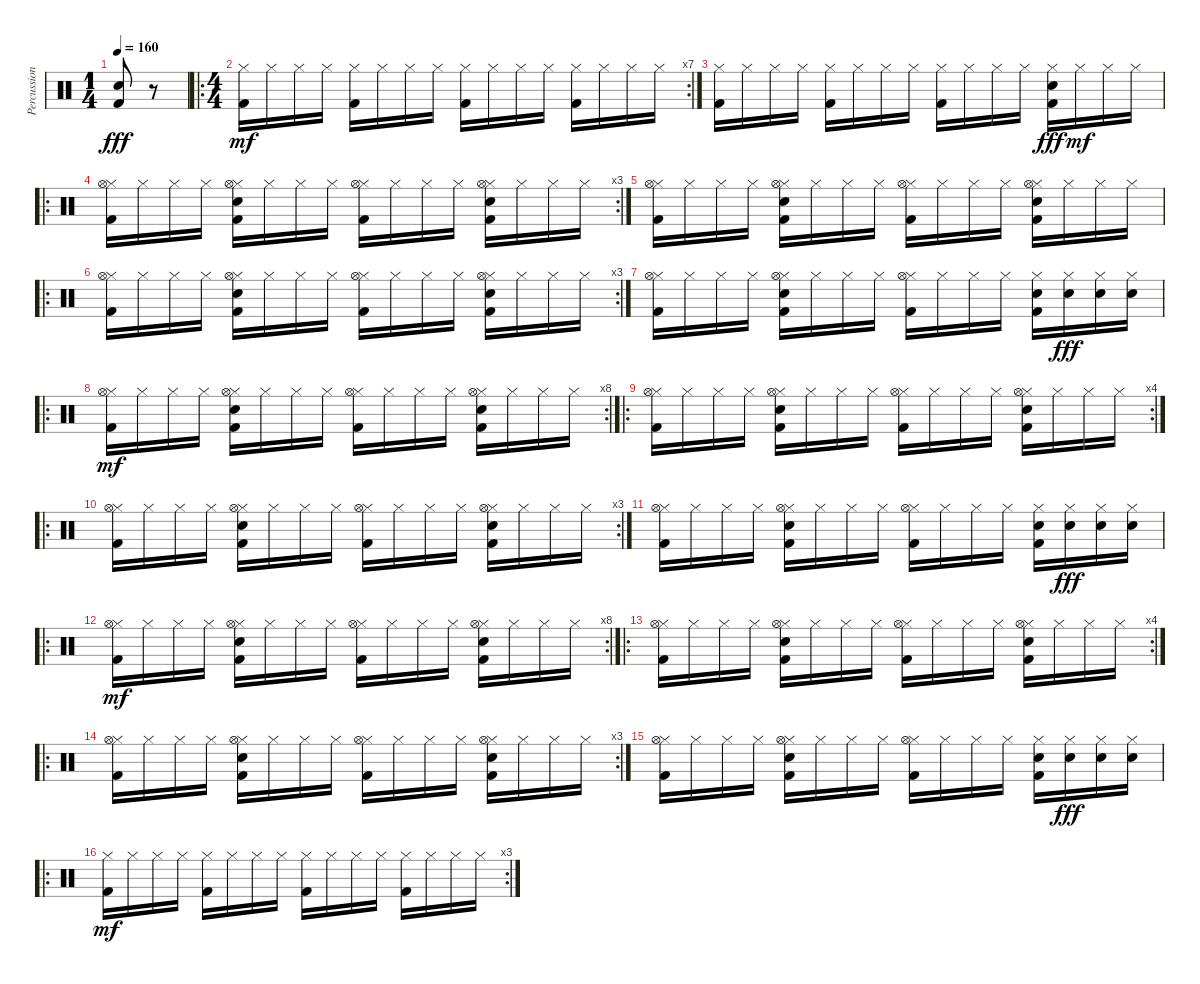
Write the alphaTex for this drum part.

\track ("Percussion" "Percussion") {instrument percussion}
\staff {score}
\articulation defaults
\ts (1 4)
\tempo 160
\clef neutral
\ks c
("Electric Snare (hit)" "Kick (hit) 2").8{dy fff} r.8 |
\ro
\rc 7
\ts (4 4)
("Hi-Hat (closed)" "Kick (hit) 2").16{dy mf volume 13} "Hi-Hat (closed)".16 "Hi-Hat (closed)".16 "Hi-Hat (closed)".16 ("Hi-Hat (closed)" "Kick (hit) 2").16 "Hi-Hat (closed)".16 "Hi-Hat (closed)".16 "Hi-Hat (closed)".16 ("Hi-Hat (closed)" "Kick (hit) 2").16 "Hi-Hat (closed)".16 "Hi-Hat (closed)".16 "Hi-Hat (closed)".16 ("Hi-Hat (closed)" "Kick (hit) 2").16 "Hi-Hat (closed)".16 "Hi-Hat (closed)".16 "Hi-Hat (closed)".16 |
("Hi-Hat (closed)" "Kick (hit) 2").16 "Hi-Hat (closed)".16 "Hi-Hat (closed)".16 "Hi-Hat (closed)".16 ("Hi-Hat (closed)" "Kick (hit) 2").16 "Hi-Hat (closed)".16 "Hi-Hat (closed)".16 "Hi-Hat (closed)".16 ("Hi-Hat (closed)" "Kick (hit) 2").16 "Hi-Hat (closed)".16 "Hi-Hat (closed)".16 "Hi-Hat (closed)".16 ("Hi-Hat (closed)" "Electric Snare (hit)" "Kick (hit) 2").16{dy fff volume 16} "Hi-Hat (closed)".16{dy mf} "Hi-Hat (closed)".16 "Hi-Hat (closed)".16 |
\ro
\rc 3
("Hi-Hat (closed)" "Hi-Hat (open)" "Kick (hit) 2").16 "Hi-Hat (closed)".16 "Hi-Hat (closed)".16 "Hi-Hat (closed)".16 ("Hi-Hat (closed)" "Hi-Hat (open)" "Electric Snare (hit)" "Kick (hit) 2").16 "Hi-Hat (closed)".16 "Hi-Hat (closed)".16 "Hi-Hat (closed)".16 ("Hi-Hat (closed)" "Hi-Hat (open)" "Kick (hit) 2").16 "Hi-Hat (closed)".16 "Hi-Hat (closed)".16 "Hi-Hat (closed)".16 ("Hi-Hat (closed)" "Hi-Hat (open)" "Electric Snare (hit)" "Kick (hit) 2").16 "Hi-Hat (closed)".16 "Hi-Hat (closed)".16 "Hi-Hat (closed)".16 |
("Hi-Hat (closed)" "Hi-Hat (open)" "Kick (hit) 2").16 "Hi-Hat (closed)".16 "Hi-Hat (closed)".16 "Hi-Hat (closed)".16 ("Hi-Hat (closed)" "Hi-Hat (open)" "Electric Snare (hit)" "Kick (hit) 2").16 "Hi-Hat (closed)".16 "Hi-Hat (closed)".16 "Hi-Hat (closed)".16 ("Hi-Hat (closed)" "Hi-Hat (open)" "Kick (hit) 2").16 "Hi-Hat (closed)".16 "Hi-Hat (closed)".16 "Hi-Hat (closed)".16 ("Hi-Hat (closed)" "Hi-Hat (open)" "Electric Snare (hit)" "Kick (hit) 2").16 "Hi-Hat (closed)".16 "Hi-Hat (closed)".16 "Hi-Hat (closed)".16 |
\ro
\rc 3
("Hi-Hat (closed)" "Hi-Hat (open)" "Kick (hit) 2").16 "Hi-Hat (closed)".16 "Hi-Hat (closed)".16 "Hi-Hat (closed)".16 ("Hi-Hat (closed)" "Hi-Hat (open)" "Electric Snare (hit)" "Kick (hit) 2").16 "Hi-Hat (closed)".16 "Hi-Hat (closed)".16 "Hi-Hat (closed)".16 ("Hi-Hat (closed)" "Hi-Hat (open)" "Kick (hit) 2").16 "Hi-Hat (closed)".16 "Hi-Hat (closed)".16 "Hi-Hat (closed)".16 ("Hi-Hat (closed)" "Hi-Hat (open)" "Electric Snare (hit)" "Kick (hit) 2").16 "Hi-Hat (closed)".16 "Hi-Hat (closed)".16 "Hi-Hat (closed)".16 |
("Hi-Hat (closed)" "Hi-Hat (open)" "Kick (hit) 2").16 "Hi-Hat (closed)".16 "Hi-Hat (closed)".16 "Hi-Hat (closed)".16 ("Hi-Hat (closed)" "Hi-Hat (open)" "Electric Snare (hit)" "Kick (hit) 2").16 "Hi-Hat (closed)".16 "Hi-Hat (closed)".16 "Hi-Hat (closed)".16 ("Hi-Hat (closed)" "Hi-Hat (open)" "Kick (hit) 2").16 "Hi-Hat (closed)".16 "Hi-Hat (closed)".16 "Hi-Hat (closed)".16 ("Hi-Hat (closed)" "Electric Snare (hit)" "Kick (hit) 2").16 ("Hi-Hat (closed)" "Electric Snare (hit)").16{dy fff} ("Hi-Hat (closed)" "Electric Snare (hit)").16 ("Hi-Hat (closed)" "Electric Snare (hit)").16 |
\ro
\rc 8
("Hi-Hat (closed)" "Hi-Hat (open)" "Kick (hit) 2").16{dy mf} "Hi-Hat (closed)".16 "Hi-Hat (closed)".16 "Hi-Hat (closed)".16 ("Hi-Hat (closed)" "Hi-Hat (open)" "Electric Snare (hit)" "Kick (hit) 2").16 "Hi-Hat (closed)".16 "Hi-Hat (closed)".16 "Hi-Hat (closed)".16 ("Hi-Hat (closed)" "Hi-Hat (open)" "Kick (hit) 2").16 "Hi-Hat (closed)".16 "Hi-Hat (closed)".16 "Hi-Hat (closed)".16 ("Hi-Hat (closed)" "Hi-Hat (open)" "Electric Snare (hit)" "Kick (hit) 2").16 "Hi-Hat (closed)".16 "Hi-Hat (closed)".16 "Hi-Hat (closed)".16 |
\ro
\rc 4
("Hi-Hat (closed)" "Hi-Hat (open)" "Kick (hit) 2").16 "Hi-Hat (closed)".16 "Hi-Hat (closed)".16 "Hi-Hat (closed)".16 ("Hi-Hat (closed)" "Hi-Hat (open)" "Electric Snare (hit)" "Kick (hit) 2").16 "Hi-Hat (closed)".16 "Hi-Hat (closed)".16 "Hi-Hat (closed)".16 ("Hi-Hat (closed)" "Hi-Hat (open)" "Kick (hit) 2").16 "Hi-Hat (closed)".16 "Hi-Hat (closed)".16 "Hi-Hat (closed)".16 ("Hi-Hat (closed)" "Hi-Hat (open)" "Electric Snare (hit)" "Kick (hit) 2").16 "Hi-Hat (closed)".16 "Hi-Hat (closed)".16 "Hi-Hat (closed)".16 |
\ro
\rc 3
("Hi-Hat (closed)" "Hi-Hat (open)" "Kick (hit) 2").16 "Hi-Hat (closed)".16 "Hi-Hat (closed)".16 "Hi-Hat (closed)".16 ("Hi-Hat (closed)" "Hi-Hat (open)" "Electric Snare (hit)" "Kick (hit) 2").16 "Hi-Hat (closed)".16 "Hi-Hat (closed)".16 "Hi-Hat (closed)".16 ("Hi-Hat (closed)" "Hi-Hat (open)" "Kick (hit) 2").16 "Hi-Hat (closed)".16 "Hi-Hat (closed)".16 "Hi-Hat (closed)".16 ("Hi-Hat (closed)" "Hi-Hat (open)" "Electric Snare (hit)" "Kick (hit) 2").16 "Hi-Hat (closed)".16 "Hi-Hat (closed)".16 "Hi-Hat (closed)".16 |
("Hi-Hat (closed)" "Hi-Hat (open)" "Kick (hit) 2").16 "Hi-Hat (closed)".16 "Hi-Hat (closed)".16 "Hi-Hat (closed)".16 ("Hi-Hat (closed)" "Hi-Hat (open)" "Electric Snare (hit)" "Kick (hit) 2").16 "Hi-Hat (closed)".16 "Hi-Hat (closed)".16 "Hi-Hat (closed)".16 ("Hi-Hat (closed)" "Hi-Hat (open)" "Kick (hit) 2").16 "Hi-Hat (closed)".16 "Hi-Hat (closed)".16 "Hi-Hat (closed)".16 ("Hi-Hat (closed)" "Electric Snare (hit)" "Kick (hit) 2").16 ("Hi-Hat (closed)" "Electric Snare (hit)").16{dy fff} ("Hi-Hat (closed)" "Electric Snare (hit)").16 ("Hi-Hat (closed)" "Electric Snare (hit)").16 |
\ro
\rc 8
("Hi-Hat (closed)" "Hi-Hat (open)" "Kick (hit) 2").16{dy mf} "Hi-Hat (closed)".16 "Hi-Hat (closed)".16 "Hi-Hat (closed)".16 ("Hi-Hat (closed)" "Hi-Hat (open)" "Electric Snare (hit)" "Kick (hit) 2").16 "Hi-Hat (closed)".16 "Hi-Hat (closed)".16 "Hi-Hat (closed)".16 ("Hi-Hat (closed)" "Hi-Hat (open)" "Kick (hit) 2").16 "Hi-Hat (closed)".16 "Hi-Hat (closed)".16 "Hi-Hat (closed)".16 ("Hi-Hat (closed)" "Hi-Hat (open)" "Electric Snare (hit)" "Kick (hit) 2").16 "Hi-Hat (closed)".16 "Hi-Hat (closed)".16 "Hi-Hat (closed)".16 |
\ro
\rc 4
("Hi-Hat (closed)" "Hi-Hat (open)" "Kick (hit) 2").16 "Hi-Hat (closed)".16 "Hi-Hat (closed)".16 "Hi-Hat (closed)".16 ("Hi-Hat (closed)" "Hi-Hat (open)" "Electric Snare (hit)" "Kick (hit) 2").16 "Hi-Hat (closed)".16 "Hi-Hat (closed)".16 "Hi-Hat (closed)".16 ("Hi-Hat (closed)" "Hi-Hat (open)" "Kick (hit) 2").16 "Hi-Hat (closed)".16 "Hi-Hat (closed)".16 "Hi-Hat (closed)".16 ("Hi-Hat (closed)" "Hi-Hat (open)" "Electric Snare (hit)" "Kick (hit) 2").16 "Hi-Hat (closed)".16 "Hi-Hat (closed)".16 "Hi-Hat (closed)".16 |
\ro
\rc 3
("Hi-Hat (closed)" "Hi-Hat (open)" "Kick (hit) 2").16 "Hi-Hat (closed)".16 "Hi-Hat (closed)".16 "Hi-Hat (closed)".16 ("Hi-Hat (closed)" "Hi-Hat (open)" "Electric Snare (hit)" "Kick (hit) 2").16 "Hi-Hat (closed)".16 "Hi-Hat (closed)".16 "Hi-Hat (closed)".16 ("Hi-Hat (closed)" "Hi-Hat (open)" "Kick (hit) 2").16 "Hi-Hat (closed)".16 "Hi-Hat (closed)".16 "Hi-Hat (closed)".16 ("Hi-Hat (closed)" "Hi-Hat (open)" "Electric Snare (hit)" "Kick (hit) 2").16 "Hi-Hat (closed)".16 "Hi-Hat (closed)".16 "Hi-Hat (closed)".16 |
("Hi-Hat (closed)" "Hi-Hat (open)" "Kick (hit) 2").16 "Hi-Hat (closed)".16 "Hi-Hat (closed)".16 "Hi-Hat (closed)".16 ("Hi-Hat (closed)" "Hi-Hat (open)" "Electric Snare (hit)" "Kick (hit) 2").16 "Hi-Hat (closed)".16 "Hi-Hat (closed)".16 "Hi-Hat (closed)".16 ("Hi-Hat (closed)" "Hi-Hat (open)" "Kick (hit) 2").16 "Hi-Hat (closed)".16 "Hi-Hat (closed)".16 "Hi-Hat (closed)".16 ("Hi-Hat (closed)" "Electric Snare (hit)" "Kick (hit) 2").16 ("Hi-Hat (closed)" "Electric Snare (hit)").16{dy fff} ("Hi-Hat (closed)" "Electric Snare (hit)").16 ("Hi-Hat (closed)" "Electric Snare (hit)").16 |
\ro
\rc 3
("Hi-Hat (closed)" "Kick (hit) 2").16{dy mf volume 13} "Hi-Hat (closed)".16 "Hi-Hat (closed)".16 "Hi-Hat (closed)".16 ("Hi-Hat (closed)" "Kick (hit) 2").16 "Hi-Hat (closed)".16 "Hi-Hat (closed)".16 "Hi-Hat (closed)".16 ("Hi-Hat (closed)" "Kick (hit) 2").16 "Hi-Hat (closed)".16 "Hi-Hat (closed)".16 "Hi-Hat (closed)".16 ("Hi-Hat (closed)" "Kick (hit) 2").16 "Hi-Hat (closed)".16 "Hi-Hat (closed)".16 "Hi-Hat (closed)".16
